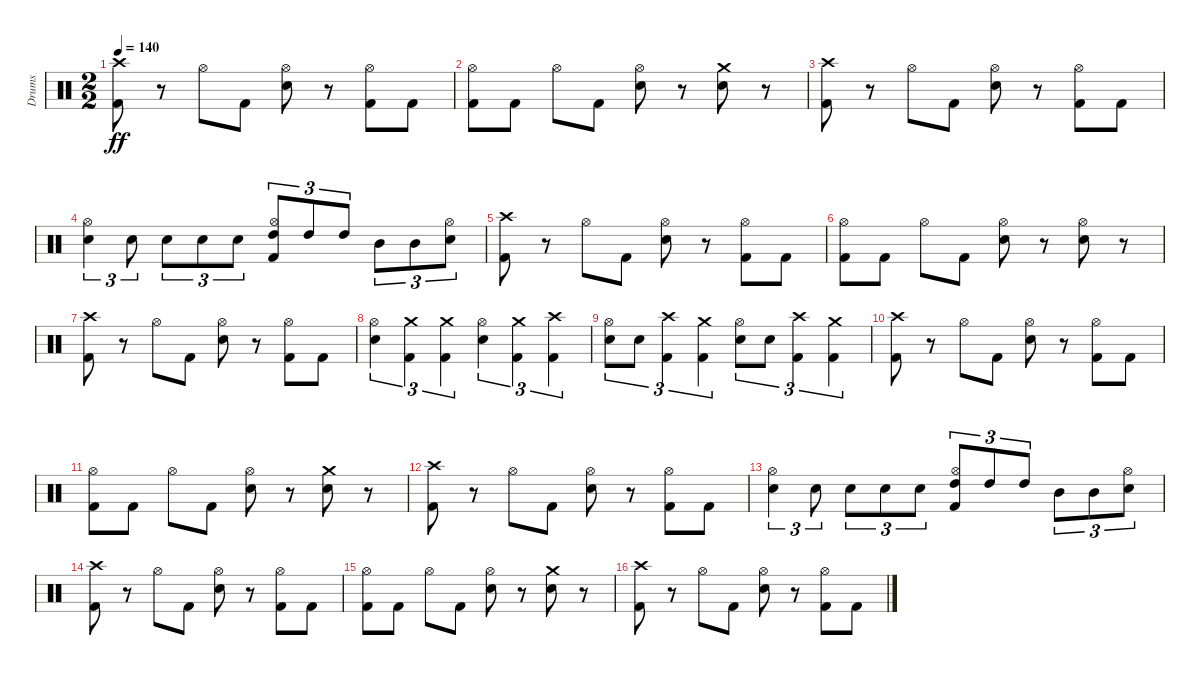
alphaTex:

\track ("Drums" "Drums") {instrument percussion}
\staff {score}
\articulation defaults
\ts (2 2)
\tempo 140
\clef neutral
\ks c
("Crash high (hit)" "Kick (hit) 2").8{dy ff} r.8 "Hi-Hat (open)".8 "Kick (hit) 2".8 ("Hi-Hat (open)" "Snare (hit) 2").8 r.8 ("Hi-Hat (open)" "Kick (hit) 2").8 "Kick (hit) 2".8 |
("Hi-Hat (open)" "Kick (hit) 2").8 "Kick (hit) 2".8 "Hi-Hat (open)".8 "Kick (hit) 2".8 ("Hi-Hat (open)" "Snare (hit) 2").8 r.8 ("Crash medium (hit)" "Snare (hit) 2").8 r.8 |
("Crash high (hit)" "Kick (hit) 2").8 r.8 "Hi-Hat (open)".8 "Kick (hit) 2".8 ("Hi-Hat (open)" "Snare (hit) 2").8 r.8 ("Hi-Hat (open)" "Kick (hit) 2").8 "Kick (hit) 2".8 |
("Hi-Hat (open)" "Snare (hit) 2").4{tu (3 2)} "Snare (hit) 2".8{tu (3 2)} "Snare (hit) 2".8{tu (3 2)} "Snare (hit) 2".8{tu (3 2)} "Snare (hit) 2".8{tu (3 2)} ("Hi-Hat (open)" "High Tom (hit)" "Kick (hit) 2").8{tu (3 2)} "High Tom (hit)".8{tu (3 2)} "High Tom (hit)".8{tu (3 2)} "Mid Tom (hit)".8{tu (3 2)} "Mid Tom (hit)".8{tu (3 2)} ("Hi-Hat (open)" "Snare (hit) 2").8{tu (3 2)} |
("Crash high (hit)" "Kick (hit) 2").8 r.8 "Hi-Hat (open)".8 "Kick (hit) 2".8 ("Hi-Hat (open)" "Snare (hit) 2").8 r.8 ("Hi-Hat (open)" "Kick (hit) 2").8 "Kick (hit) 2".8 |
("Hi-Hat (open)" "Kick (hit) 2").8 "Kick (hit) 2".8 "Hi-Hat (open)".8 "Kick (hit) 2".8 ("Hi-Hat (open)" "Snare (hit) 2").8 r.8 ("Hi-Hat (open)" "Snare (hit) 2").8 r.8 |
("Crash high (hit)" "Kick (hit) 2").8 r.8 "Hi-Hat (open)".8 "Kick (hit) 2".8 ("Hi-Hat (open)" "Snare (hit) 2").8 r.8 ("Hi-Hat (open)" "Kick (hit) 2").8 "Kick (hit) 2".8 |
("Hi-Hat (open)" "Snare (hit) 2").4{tu (3 2)} ("Crash medium (hit)" "Kick (hit) 2").4{tu (3 2)} ("Crash medium (hit)" "Kick (hit) 2").4{tu (3 2)} ("Hi-Hat (open)" "Snare (hit) 2").4{tu (3 2)} ("Crash medium (hit)" "Kick (hit) 2").4{tu (3 2)} ("Crash high (hit)" "Kick (hit) 2").4{tu (3 2)} |
("Hi-Hat (open)" "Snare (hit) 2").8{tu (3 2)} "Snare (hit) 2".8{tu (3 2)} ("Crash high (hit)" "Kick (hit) 2").4{tu (3 2)} ("Crash medium (hit)" "Kick (hit) 2").4{tu (3 2)} ("Hi-Hat (open)" "Snare (hit) 2").8{tu (3 2)} "Snare (hit) 2".8{tu (3 2)} ("Crash high (hit)" "Kick (hit) 2").4{tu (3 2)} ("Crash medium (hit)" "Kick (hit) 2").4{tu (3 2)} |
("Crash high (hit)" "Kick (hit) 2").8 r.8 "Hi-Hat (open)".8 "Kick (hit) 2".8 ("Hi-Hat (open)" "Snare (hit) 2").8 r.8 ("Hi-Hat (open)" "Kick (hit) 2").8 "Kick (hit) 2".8 |
("Hi-Hat (open)" "Kick (hit) 2").8 "Kick (hit) 2".8 "Hi-Hat (open)".8 "Kick (hit) 2".8 ("Hi-Hat (open)" "Snare (hit) 2").8 r.8 ("Crash medium (hit)" "Snare (hit) 2").8 r.8 |
("Crash high (hit)" "Kick (hit) 2").8 r.8 "Hi-Hat (open)".8 "Kick (hit) 2".8 ("Hi-Hat (open)" "Snare (hit) 2").8 r.8 ("Hi-Hat (open)" "Kick (hit) 2").8 "Kick (hit) 2".8 |
("Hi-Hat (open)" "Snare (hit) 2").4{tu (3 2)} "Snare (hit) 2".8{tu (3 2)} "Snare (hit) 2".8{tu (3 2)} "Snare (hit) 2".8{tu (3 2)} "Snare (hit) 2".8{tu (3 2)} ("Hi-Hat (open)" "High Tom (hit)" "Kick (hit) 2").8{tu (3 2)} "High Tom (hit)".8{tu (3 2)} "High Tom (hit)".8{tu (3 2)} "Mid Tom (hit)".8{tu (3 2)} "Mid Tom (hit)".8{tu (3 2)} ("Hi-Hat (open)" "Snare (hit) 2").8{tu (3 2)} |
("Crash high (hit)" "Kick (hit) 2").8 r.8 "Hi-Hat (open)".8 "Kick (hit) 2".8 ("Hi-Hat (open)" "Snare (hit) 2").8 r.8 ("Hi-Hat (open)" "Kick (hit) 2").8 "Kick (hit) 2".8 |
("Hi-Hat (open)" "Kick (hit) 2").8 "Kick (hit) 2".8 "Hi-Hat (open)".8 "Kick (hit) 2".8 ("Hi-Hat (open)" "Snare (hit) 2").8 r.8 ("Crash medium (hit)" "Snare (hit) 2").8 r.8 |
("Crash high (hit)" "Kick (hit) 2").8 r.8 "Hi-Hat (open)".8 "Kick (hit) 2".8 ("Hi-Hat (open)" "Snare (hit) 2").8 r.8 ("Hi-Hat (open)" "Kick (hit) 2").8 "Kick (hit) 2".8
